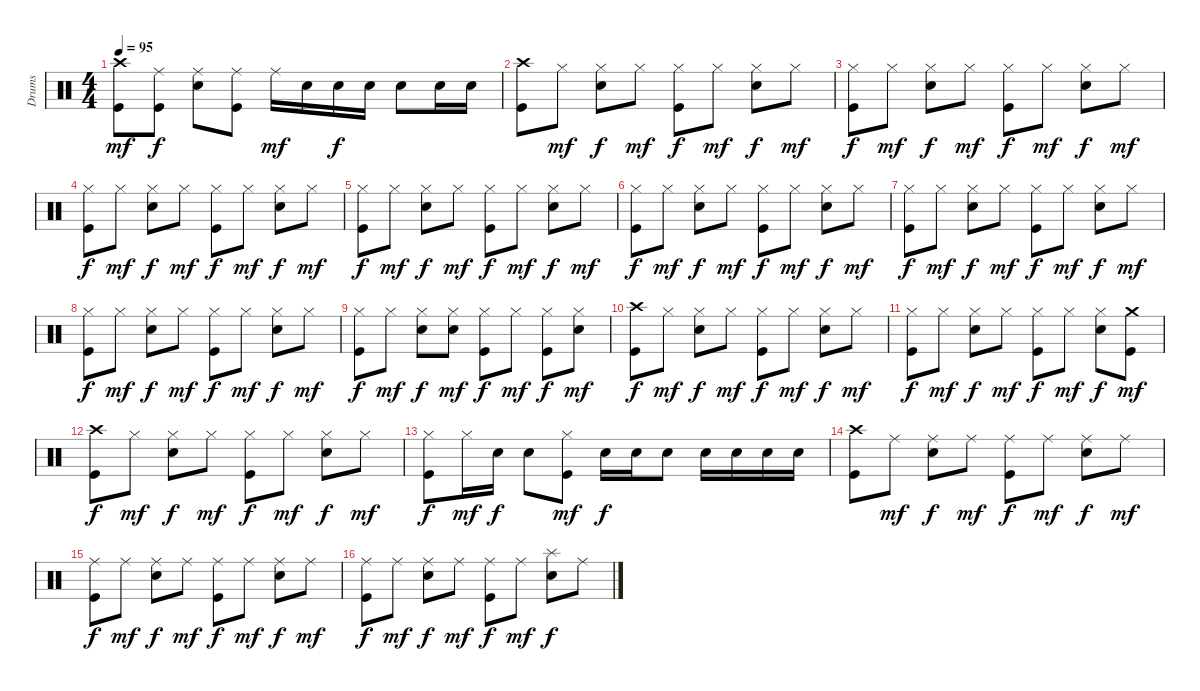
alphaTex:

\track ("Drums" "Drums") {instrument percussion}
\staff {score}
\articulation defaults
\ts (4 4)
\tempo 95
\clef neutral
\ks c
("Crash high (hit)" "Kick (hit)").8{dy mf} ("Ride (middle)" "Kick (hit)").8{dy f} ("Ride (middle)" "Snare (hit) 2").8 ("Ride (middle)" "Kick (hit)").8 "Ride (middle)".16{dy mf} "Snare (hit) 2".16 "Snare (hit) 2".16{dy f} "Snare (hit) 2".16 "Snare (hit) 2".8 "Snare (hit) 2".16 "Snare (hit) 2".16 |
("Crash high (hit)" "Kick (hit)").8 "Hi-Hat (closed)".8{dy mf} ("Hi-Hat (closed)" "Snare (hit) 2").8{dy f} "Hi-Hat (closed)".8{dy mf} ("Hi-Hat (closed)" "Kick (hit)").8{dy f} "Hi-Hat (closed)".8{dy mf} ("Hi-Hat (closed)" "Snare (hit) 2").8{dy f} "Hi-Hat (closed)".8{dy mf} |
("Hi-Hat (closed)" "Kick (hit)").8{dy f} "Hi-Hat (closed)".8{dy mf} ("Hi-Hat (closed)" "Snare (hit) 2").8{dy f} "Hi-Hat (closed)".8{dy mf} ("Hi-Hat (closed)" "Kick (hit)").8{dy f} "Hi-Hat (closed)".8{dy mf} ("Hi-Hat (closed)" "Snare (hit) 2").8{dy f} "Hi-Hat (closed)".8{dy mf} |
("Hi-Hat (closed)" "Kick (hit)").8{dy f} "Hi-Hat (closed)".8{dy mf} ("Hi-Hat (closed)" "Snare (hit) 2").8{dy f} "Hi-Hat (closed)".8{dy mf} ("Hi-Hat (closed)" "Kick (hit)").8{dy f} "Hi-Hat (closed)".8{dy mf} ("Hi-Hat (closed)" "Snare (hit) 2").8{dy f} "Hi-Hat (closed)".8{dy mf} |
("Hi-Hat (closed)" "Kick (hit)").8{dy f} "Hi-Hat (closed)".8{dy mf} ("Hi-Hat (closed)" "Snare (hit) 2").8{dy f} "Hi-Hat (closed)".8{dy mf} ("Hi-Hat (closed)" "Kick (hit)").8{dy f} "Hi-Hat (closed)".8{dy mf} ("Hi-Hat (closed)" "Snare (hit) 2").8{dy f} "Hi-Hat (closed)".8{dy mf} |
("Hi-Hat (closed)" "Kick (hit)").8{dy f} "Hi-Hat (closed)".8{dy mf} ("Hi-Hat (closed)" "Snare (hit) 2").8{dy f} "Hi-Hat (closed)".8{dy mf} ("Hi-Hat (closed)" "Kick (hit)").8{dy f} "Hi-Hat (closed)".8{dy mf} ("Hi-Hat (closed)" "Snare (hit) 2").8{dy f} "Hi-Hat (closed)".8{dy mf} |
("Hi-Hat (closed)" "Kick (hit)").8{dy f} "Hi-Hat (closed)".8{dy mf} ("Hi-Hat (closed)" "Snare (hit) 2").8{dy f} "Hi-Hat (closed)".8{dy mf} ("Hi-Hat (closed)" "Kick (hit)").8{dy f} "Hi-Hat (closed)".8{dy mf} ("Hi-Hat (closed)" "Snare (hit) 2").8{dy f} "Hi-Hat (closed)".8{dy mf} |
("Hi-Hat (closed)" "Kick (hit)").8{dy f} "Hi-Hat (closed)".8{dy mf} ("Hi-Hat (closed)" "Snare (hit) 2").8{dy f} "Hi-Hat (closed)".8{dy mf} ("Hi-Hat (closed)" "Kick (hit)").8{dy f} "Hi-Hat (closed)".8{dy mf} ("Hi-Hat (closed)" "Snare (hit) 2").8{dy f} "Hi-Hat (closed)".8{dy mf} |
("Hi-Hat (closed)" "Kick (hit)").8{dy f} "Hi-Hat (closed)".8{dy mf} ("Hi-Hat (closed)" "Snare (hit) 2").8{dy f} ("Hi-Hat (closed)" "Snare (hit) 2").8{dy mf} ("Hi-Hat (closed)" "Kick (hit)").8{dy f} "Hi-Hat (closed)".8{dy mf} ("Hi-Hat (closed)" "Kick (hit)").8{dy f} ("Hi-Hat (closed)" "Snare (hit) 2").8{dy mf} |
("Crash high (hit)" "Kick (hit)").8{dy f} "Hi-Hat (closed)".8{dy mf} ("Hi-Hat (closed)" "Snare (hit) 2").8{dy f} "Hi-Hat (closed)".8{dy mf} ("Hi-Hat (closed)" "Kick (hit)").8{dy f} "Hi-Hat (closed)".8{dy mf} ("Hi-Hat (closed)" "Snare (hit) 2").8{dy f} "Hi-Hat (closed)".8{dy mf} |
("Hi-Hat (closed)" "Kick (hit)").8{dy f} "Hi-Hat (closed)".8{dy mf} ("Hi-Hat (closed)" "Snare (hit) 2").8{dy f} "Hi-Hat (closed)".8{dy mf} ("Hi-Hat (closed)" "Kick (hit)").8{dy f} "Hi-Hat (closed)".8{dy mf} ("Hi-Hat (closed)" "Snare (hit) 2").8{dy f} ("Crash medium (hit)" "Kick (hit)").8{dy mf} |
("Crash high (hit)" "Kick (hit)").8{dy f} "Hi-Hat (closed)".8{dy mf} ("Hi-Hat (closed)" "Snare (hit) 2").8{dy f} "Hi-Hat (closed)".8{dy mf} ("Hi-Hat (closed)" "Kick (hit)").8{dy f} "Hi-Hat (closed)".8{dy mf} ("Hi-Hat (closed)" "Snare (hit) 2").8{dy f} "Hi-Hat (closed)".8{dy mf} |
("Hi-Hat (closed)" "Kick (hit)").8{dy f} "Hi-Hat (closed)".16{dy mf} "Snare (hit) 2".16{dy f} "Snare (hit) 2".8 ("Hi-Hat (closed)" "Kick (hit)").8{dy mf} "Snare (hit) 2".16{dy f} "Snare (hit) 2".16 "Snare (hit) 2".8 "Snare (hit) 2".16 "Snare (hit) 2".16 "Snare (hit) 2".16 "Snare (hit) 2".16 |
("Crash high (hit)" "Kick (hit)").8 "Ride (middle)".8{dy mf} ("Ride (middle)" "Snare (hit) 2").8{dy f} "Ride (middle)".8{dy mf} ("Ride (middle)" "Kick (hit)").8{dy f} "Ride (middle)".8{dy mf} ("Ride (middle)" "Snare (hit) 2").8{dy f} "Ride (middle)".8{dy mf} |
("Ride (middle)" "Kick (hit)").8{dy f} "Ride (middle)".8{dy mf} ("Ride (middle)" "Snare (hit) 2").8{dy f} "Ride (middle)".8{dy mf} ("Ride (middle)" "Kick (hit)").8{dy f} "Ride (middle)".8{dy mf} ("Ride (middle)" "Snare (hit) 2").8{dy f} "Ride (middle)".8{dy mf} |
("Ride (middle)" "Kick (hit)").8{dy f} "Ride (middle)".8{dy mf} ("Ride (middle)" "Snare (hit) 2").8{dy f} "Ride (middle)".8{dy mf} ("Ride (middle)" "Kick (hit)").8{dy f} "Ride (middle)".8{dy mf} ("Splash (hit)" "Snare (hit) 2").8{dy f} "Ride (middle)".8
